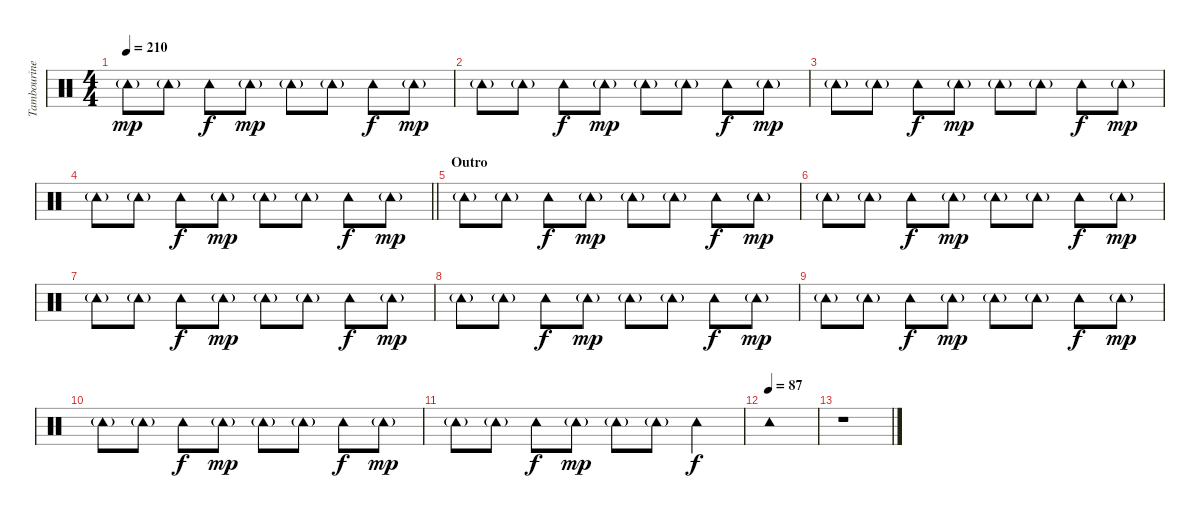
\track ("Tambourine" "Tambourine") {instrument percussion}
\staff {score}
\articulation defaults
\ts (4 4)
\tempo 210
\clef neutral
\ks c "Tambourine (hit)"{g}.8{dy mp} "Tambourine (hit)"{g}.8 "Tambourine (hit)".8{dy f} "Tambourine (hit)"{g}.8{dy mp} "Tambourine (hit)"{g}.8 "Tambourine (hit)"{g}.8 "Tambourine (hit)".8{dy f} "Tambourine (hit)"{g}.8{dy mp}
|
"Tambourine (hit)"{g}.8 "Tambourine (hit)"{g}.8 "Tambourine (hit)".8{dy f} "Tambourine (hit)"{g}.8{dy mp} "Tambourine (hit)"{g}.8 "Tambourine (hit)"{g}.8 "Tambourine (hit)".8{dy f} "Tambourine (hit)"{g}.8{dy mp} |
"Tambourine (hit)"{g}.8 "Tambourine (hit)"{g}.8 "Tambourine (hit)".8{dy f} "Tambourine (hit)"{g}.8{dy mp} "Tambourine (hit)"{g}.8 "Tambourine (hit)"{g}.8 "Tambourine (hit)".8{dy f} "Tambourine (hit)"{g}.8{dy mp} |
\barLineRight lightlight "Tambourine (hit)"{g}.8 "Tambourine (hit)"{g}.8 "Tambourine (hit)".8{dy f} "Tambourine (hit)"{g}.8{dy mp} "Tambourine (hit)"{g}.8 "Tambourine (hit)"{g}.8 "Tambourine (hit)".8{dy f} "Tambourine (hit)"{g}.8{dy mp}
|
\section ("" "Outro")
"Tambourine (hit)"{g}.8 "Tambourine (hit)"{g}.8 "Tambourine (hit)".8{dy f} "Tambourine (hit)"{g}.8{dy mp} "Tambourine (hit)"{g}.8 "Tambourine (hit)"{g}.8 "Tambourine (hit)".8{dy f} "Tambourine (hit)"{g}.8{dy mp} |
"Tambourine (hit)"{g}.8 "Tambourine (hit)"{g}.8 "Tambourine (hit)".8{dy f} "Tambourine (hit)"{g}.8{dy mp} "Tambourine (hit)"{g}.8 "Tambourine (hit)"{g}.8 "Tambourine (hit)".8{dy f} "Tambourine (hit)"{g}.8{dy mp} |
"Tambourine (hit)"{g}.8 "Tambourine (hit)"{g}.8 "Tambourine (hit)".8{dy f} "Tambourine (hit)"{g}.8{dy mp} "Tambourine (hit)"{g}.8 "Tambourine (hit)"{g}.8 "Tambourine (hit)".8{dy f} "Tambourine (hit)"{g}.8{dy mp} |
"Tambourine (hit)"{g}.8 "Tambourine (hit)"{g}.8 "Tambourine (hit)".8{dy f} "Tambourine (hit)"{g}.8{dy mp} "Tambourine (hit)"{g}.8 "Tambourine (hit)"{g}.8 "Tambourine (hit)".8{dy f} "Tambourine (hit)"{g}.8{dy mp} |
"Tambourine (hit)"{g}.8 "Tambourine (hit)"{g}.8 "Tambourine (hit)".8{dy f} "Tambourine (hit)"{g}.8{dy mp} "Tambourine (hit)"{g}.8 "Tambourine (hit)"{g}.8 "Tambourine (hit)".8{dy f} "Tambourine (hit)"{g}.8{dy mp} |
"Tambourine (hit)"{g}.8 "Tambourine (hit)"{g}.8 "Tambourine (hit)".8{dy f} "Tambourine (hit)"{g}.8{dy mp} "Tambourine (hit)"{g}.8 "Tambourine (hit)"{g}.8 "Tambourine (hit)".8{dy f} "Tambourine (hit)"{g}.8{dy mp} |
"Tambourine (hit)"{g}.8 "Tambourine (hit)"{g}.8 "Tambourine (hit)".8{dy f} "Tambourine (hit)"{g}.8{dy mp} "Tambourine (hit)"{g}.8 "Tambourine (hit)"{g}.8 "Tambourine (hit)".4{dy f} |
\tempo (87)
"Tambourine (hit)".1 |
r.1
